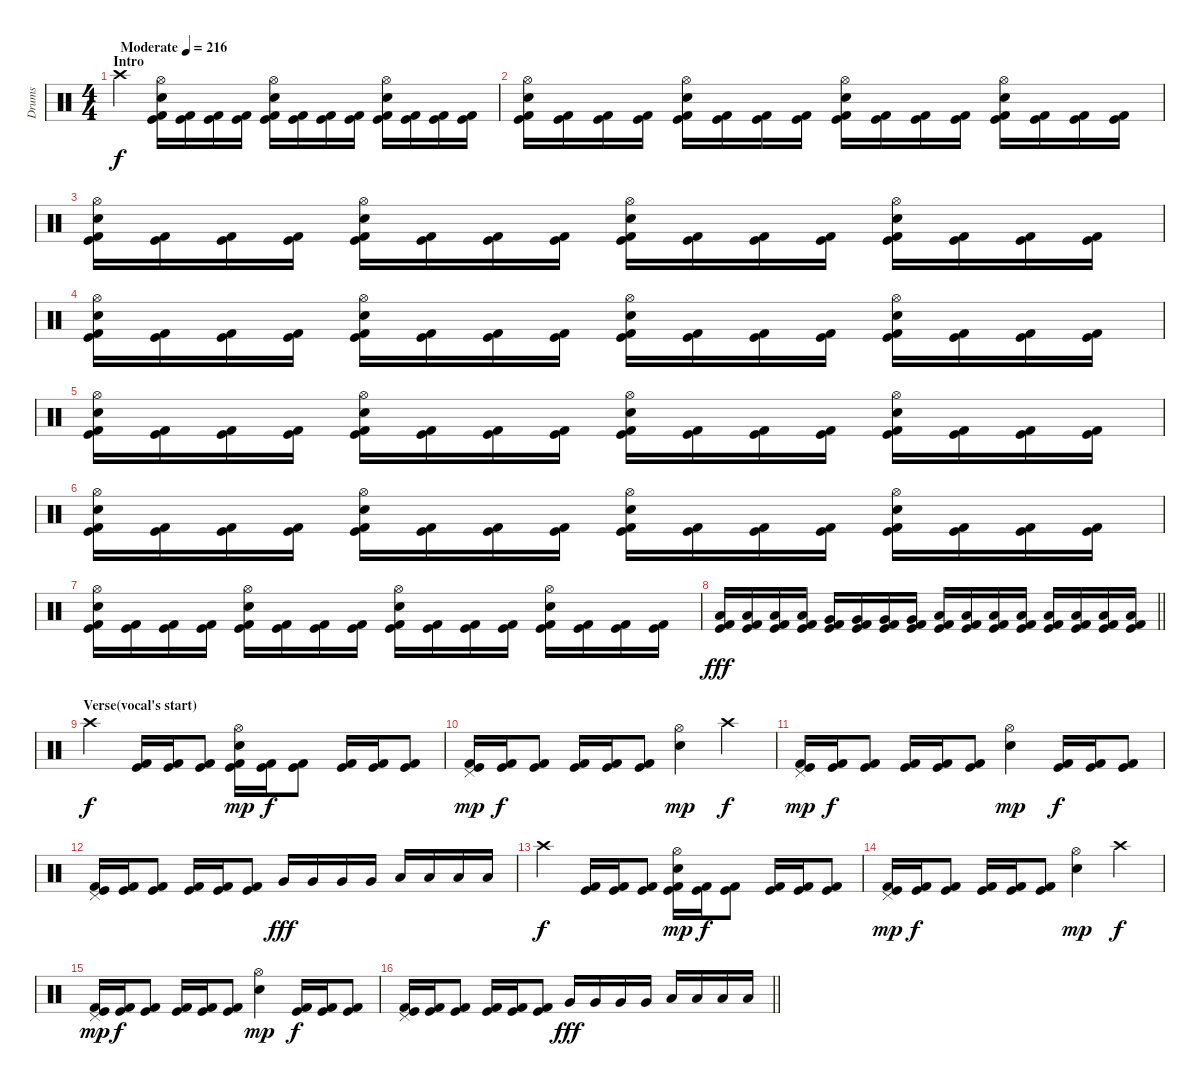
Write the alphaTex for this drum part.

\track ("Drums" "Drums") {instrument percussion}
\staff {score}
\articulation defaults
\ts (4 4)
\section ("" "Intro")
\tempo (216 "Moderate")
\clef neutral
\ks c "Crash high (hit)".4{dy f}
("Hi-Hat (open)" "Electric Snare (hit)" "Kick (hit)" "Kick (hit) 2").16 ("Kick (hit)" "Kick (hit) 2").16 ("Kick (hit)" "Kick (hit) 2").16 ("Kick (hit)" "Kick (hit) 2").16 ("Hi-Hat (open)" "Electric Snare (hit)" "Kick (hit)" "Kick (hit) 2").16 ("Kick (hit)" "Kick (hit) 2").16 ("Kick (hit)" "Kick (hit) 2").16 ("Kick (hit)" "Kick (hit) 2").16 ("Hi-Hat (open)" "Electric Snare (hit)" "Kick (hit)" "Kick (hit) 2").16 ("Kick (hit)" "Kick (hit) 2").16 ("Kick (hit)" "Kick (hit) 2").16 ("Kick (hit)" "Kick (hit) 2").16 |
("Hi-Hat (open)" "Electric Snare (hit)" "Kick (hit)" "Kick (hit) 2").16 ("Kick (hit)" "Kick (hit) 2").16 ("Kick (hit)" "Kick (hit) 2").16 ("Kick (hit)" "Kick (hit) 2").16 ("Hi-Hat (open)" "Electric Snare (hit)" "Kick (hit)" "Kick (hit) 2").16 ("Kick (hit)" "Kick (hit) 2").16 ("Kick (hit)" "Kick (hit) 2").16 ("Kick (hit)" "Kick (hit) 2").16 ("Hi-Hat (open)" "Electric Snare (hit)" "Kick (hit)" "Kick (hit) 2").16 ("Kick (hit)" "Kick (hit) 2").16 ("Kick (hit)" "Kick (hit) 2").16 ("Kick (hit)" "Kick (hit) 2").16 ("Hi-Hat (open)" "Electric Snare (hit)" "Kick (hit)" "Kick (hit) 2").16 ("Kick (hit)" "Kick (hit) 2").16 ("Kick (hit)" "Kick (hit) 2").16 ("Kick (hit)" "Kick (hit) 2").16 |
("Hi-Hat (open)" "Electric Snare (hit)" "Kick (hit)" "Kick (hit) 2").16 ("Kick (hit)" "Kick (hit) 2").16 ("Kick (hit)" "Kick (hit) 2").16 ("Kick (hit)" "Kick (hit) 2").16 ("Hi-Hat (open)" "Electric Snare (hit)" "Kick (hit)" "Kick (hit) 2").16 ("Kick (hit)" "Kick (hit) 2").16 ("Kick (hit)" "Kick (hit) 2").16 ("Kick (hit)" "Kick (hit) 2").16 ("Hi-Hat (open)" "Electric Snare (hit)" "Kick (hit)" "Kick (hit) 2").16 ("Kick (hit)" "Kick (hit) 2").16 ("Kick (hit)" "Kick (hit) 2").16 ("Kick (hit)" "Kick (hit) 2").16 ("Hi-Hat (open)" "Electric Snare (hit)" "Kick (hit)" "Kick (hit) 2").16 ("Kick (hit)" "Kick (hit) 2").16 ("Kick (hit)" "Kick (hit) 2").16 ("Kick (hit)" "Kick (hit) 2").16 |
("Hi-Hat (open)" "Electric Snare (hit)" "Kick (hit)" "Kick (hit) 2").16 ("Kick (hit)" "Kick (hit) 2").16 ("Kick (hit)" "Kick (hit) 2").16 ("Kick (hit)" "Kick (hit) 2").16 ("Hi-Hat (open)" "Electric Snare (hit)" "Kick (hit)" "Kick (hit) 2").16 ("Kick (hit)" "Kick (hit) 2").16 ("Kick (hit)" "Kick (hit) 2").16 ("Kick (hit)" "Kick (hit) 2").16 ("Hi-Hat (open)" "Electric Snare (hit)" "Kick (hit)" "Kick (hit) 2").16 ("Kick (hit)" "Kick (hit) 2").16 ("Kick (hit)" "Kick (hit) 2").16 ("Kick (hit)" "Kick (hit) 2").16 ("Hi-Hat (open)" "Electric Snare (hit)" "Kick (hit)" "Kick (hit) 2").16 ("Kick (hit)" "Kick (hit) 2").16 ("Kick (hit)" "Kick (hit) 2").16 ("Kick (hit)" "Kick (hit) 2").16 |
("Hi-Hat (open)" "Electric Snare (hit)" "Kick (hit)" "Kick (hit) 2").16 ("Kick (hit)" "Kick (hit) 2").16 ("Kick (hit)" "Kick (hit) 2").16 ("Kick (hit)" "Kick (hit) 2").16 ("Hi-Hat (open)" "Electric Snare (hit)" "Kick (hit)" "Kick (hit) 2").16 ("Kick (hit)" "Kick (hit) 2").16 ("Kick (hit)" "Kick (hit) 2").16 ("Kick (hit)" "Kick (hit) 2").16 ("Hi-Hat (open)" "Electric Snare (hit)" "Kick (hit)" "Kick (hit) 2").16 ("Kick (hit)" "Kick (hit) 2").16 ("Kick (hit)" "Kick (hit) 2").16 ("Kick (hit)" "Kick (hit) 2").16 ("Hi-Hat (open)" "Electric Snare (hit)" "Kick (hit)" "Kick (hit) 2").16 ("Kick (hit)" "Kick (hit) 2").16 ("Kick (hit)" "Kick (hit) 2").16 ("Kick (hit)" "Kick (hit) 2").16 |
("Hi-Hat (open)" "Electric Snare (hit)" "Kick (hit)" "Kick (hit) 2").16 ("Kick (hit)" "Kick (hit) 2").16 ("Kick (hit)" "Kick (hit) 2").16 ("Kick (hit)" "Kick (hit) 2").16 ("Hi-Hat (open)" "Electric Snare (hit)" "Kick (hit)" "Kick (hit) 2").16 ("Kick (hit)" "Kick (hit) 2").16 ("Kick (hit)" "Kick (hit) 2").16 ("Kick (hit)" "Kick (hit) 2").16 ("Hi-Hat (open)" "Electric Snare (hit)" "Kick (hit)" "Kick (hit) 2").16 ("Kick (hit)" "Kick (hit) 2").16 ("Kick (hit)" "Kick (hit) 2").16 ("Kick (hit)" "Kick (hit) 2").16 ("Hi-Hat (open)" "Electric Snare (hit)" "Kick (hit)" "Kick (hit) 2").16 ("Kick (hit)" "Kick (hit) 2").16 ("Kick (hit)" "Kick (hit) 2").16 ("Kick (hit)" "Kick (hit) 2").16 |
("Hi-Hat (open)" "Electric Snare (hit)" "Kick (hit)" "Kick (hit) 2").16 ("Kick (hit)" "Kick (hit) 2").16 ("Kick (hit)" "Kick (hit) 2").16 ("Kick (hit)" "Kick (hit) 2").16 ("Hi-Hat (open)" "Electric Snare (hit)" "Kick (hit)" "Kick (hit) 2").16 ("Kick (hit)" "Kick (hit) 2").16 ("Kick (hit)" "Kick (hit) 2").16 ("Kick (hit)" "Kick (hit) 2").16 ("Hi-Hat (open)" "Electric Snare (hit)" "Kick (hit)" "Kick (hit) 2").16 ("Kick (hit)" "Kick (hit) 2").16 ("Kick (hit)" "Kick (hit) 2").16 ("Kick (hit)" "Kick (hit) 2").16 ("Hi-Hat (open)" "Electric Snare (hit)" "Kick (hit)" "Kick (hit) 2").16 ("Kick (hit)" "Kick (hit) 2").16 ("Kick (hit)" "Kick (hit) 2").16 ("Kick (hit)" "Kick (hit) 2").16 |
\barLineRight lightlight
("Low Tom (hit)" "Kick (hit)" "Kick (hit) 2").16{dy fff} ("Low Tom (hit)" "Kick (hit)" "Kick (hit) 2").16 ("Low Tom (hit)" "Kick (hit)" "Kick (hit) 2").16 ("Low Tom (hit)" "Kick (hit)" "Kick (hit) 2").16 ("Very Low Tom (hit)" "Kick (hit)" "Kick (hit) 2").16 ("Very Low Tom (hit)" "Kick (hit)" "Kick (hit) 2").16 ("Very Low Tom (hit)" "Kick (hit)" "Kick (hit) 2").16 ("Very Low Tom (hit)" "Kick (hit)" "Kick (hit) 2").16 ("Low Tom (hit)" "Kick (hit)" "Kick (hit) 2").16 ("Low Tom (hit)" "Kick (hit)" "Kick (hit) 2").16 ("Low Tom (hit)" "Kick (hit)" "Kick (hit) 2").16 ("Low Tom (hit)" "Kick (hit)" "Kick (hit) 2").16 ("Low Floor Tom (hit)" "Kick (hit)" "Kick (hit) 2").16 ("Low Floor Tom (hit)" "Kick (hit)" "Kick (hit) 2").16 ("Low Floor Tom (hit)" "Kick (hit)" "Kick (hit) 2").16 ("Low Floor Tom (hit)" "Kick (hit)" "Kick (hit) 2").16 |
\section ("" "Verse(vocal's start)")
"Crash high (hit)".4{dy f} ("Kick (hit)" "Kick (hit) 2").16 ("Kick (hit)" "Kick (hit) 2").16 ("Kick (hit)" "Kick (hit) 2").8 ("Hi-Hat (open)" "Electric Snare (hit)" "Kick (hit)" "Kick (hit) 2").16{dy mp} ("Kick (hit)" "Kick (hit) 2").16{dy f} ("Kick (hit)" "Kick (hit) 2").8 ("Kick (hit)" "Kick (hit) 2").16 ("Kick (hit)" "Kick (hit) 2").16 ("Kick (hit)" "Kick (hit) 2").8 |
("Pedal Hi-Hat (hit)" "Kick (hit)" "Kick (hit) 2").16{dy mp} ("Kick (hit)" "Kick (hit) 2").16{dy f} ("Kick (hit)" "Kick (hit) 2").8 ("Kick (hit)" "Kick (hit) 2").16 ("Kick (hit)" "Kick (hit) 2").16 ("Kick (hit)" "Kick (hit) 2").8 ("Hi-Hat (open)" "Electric Snare (hit)").4{dy mp} "Crash high (hit)".4{dy f} |
("Pedal Hi-Hat (hit)" "Kick (hit)" "Kick (hit) 2").16{dy mp} ("Kick (hit)" "Kick (hit) 2").16{dy f} ("Kick (hit)" "Kick (hit) 2").8 ("Kick (hit)" "Kick (hit) 2").16 ("Kick (hit)" "Kick (hit) 2").16 ("Kick (hit)" "Kick (hit) 2").8 ("Hi-Hat (open)" "Electric Snare (hit)").4{dy mp} ("Kick (hit)" "Kick (hit) 2").16{dy f} ("Kick (hit)" "Kick (hit) 2").16 ("Kick (hit)" "Kick (hit) 2").8 |
("Pedal Hi-Hat (hit)" "Kick (hit)" "Kick (hit) 2").16 ("Kick (hit)" "Kick (hit) 2").16 ("Kick (hit)" "Kick (hit) 2").8 ("Kick (hit)" "Kick (hit) 2").16 ("Kick (hit)" "Kick (hit) 2").16 ("Kick (hit)" "Kick (hit) 2").8 "Very Low Tom (hit)".16{dy fff} "Very Low Tom (hit)".16 "Very Low Tom (hit)".16 "Very Low Tom (hit)".16 "Low Floor Tom (hit)".16 "Low Floor Tom (hit)".16 "Low Floor Tom (hit)".16 "Low Floor Tom (hit)".16 |
"Crash high (hit)".4{dy f} ("Kick (hit)" "Kick (hit) 2").16 ("Kick (hit)" "Kick (hit) 2").16 ("Kick (hit)" "Kick (hit) 2").8 ("Hi-Hat (open)" "Electric Snare (hit)" "Kick (hit)" "Kick (hit) 2").16{dy mp} ("Kick (hit)" "Kick (hit) 2").16{dy f} ("Kick (hit)" "Kick (hit) 2").8 ("Kick (hit)" "Kick (hit) 2").16 ("Kick (hit)" "Kick (hit) 2").16 ("Kick (hit)" "Kick (hit) 2").8 |
("Pedal Hi-Hat (hit)" "Kick (hit)" "Kick (hit) 2").16{dy mp} ("Kick (hit)" "Kick (hit) 2").16{dy f} ("Kick (hit)" "Kick (hit) 2").8 ("Kick (hit)" "Kick (hit) 2").16 ("Kick (hit)" "Kick (hit) 2").16 ("Kick (hit)" "Kick (hit) 2").8 ("Hi-Hat (open)" "Electric Snare (hit)").4{dy mp} "Crash high (hit)".4{dy f} |
("Pedal Hi-Hat (hit)" "Kick (hit)" "Kick (hit) 2").16{dy mp} ("Kick (hit)" "Kick (hit) 2").16{dy f} ("Kick (hit)" "Kick (hit) 2").8 ("Kick (hit)" "Kick (hit) 2").16 ("Kick (hit)" "Kick (hit) 2").16 ("Kick (hit)" "Kick (hit) 2").8 ("Hi-Hat (open)" "Electric Snare (hit)").4{dy mp} ("Kick (hit)" "Kick (hit) 2").16{dy f} ("Kick (hit)" "Kick (hit) 2").16 ("Kick (hit)" "Kick (hit) 2").8 |
\barLineRight lightlight
("Pedal Hi-Hat (hit)" "Kick (hit)" "Kick (hit) 2").16 ("Kick (hit)" "Kick (hit) 2").16 ("Kick (hit)" "Kick (hit) 2").8 ("Kick (hit)" "Kick (hit) 2").16 ("Kick (hit)" "Kick (hit) 2").16 ("Kick (hit)" "Kick (hit) 2").8 "Very Low Tom (hit)".16{dy fff} "Very Low Tom (hit)".16 "Very Low Tom (hit)".16 "Very Low Tom (hit)".16 "Low Floor Tom (hit)".16 "Low Floor Tom (hit)".16 "Low Floor Tom (hit)".16 "Low Floor Tom (hit)".16
